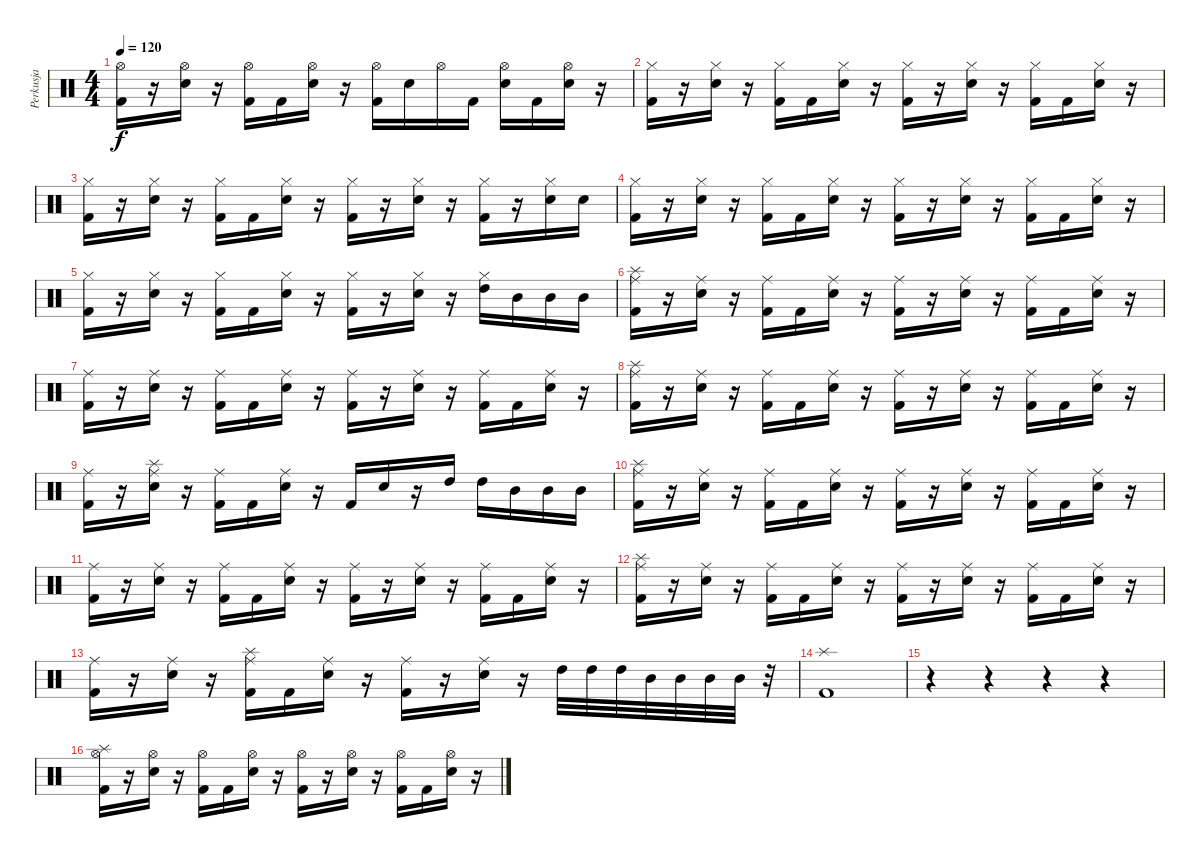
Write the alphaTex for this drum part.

\track ("Perkusja" "Perkusja") {instrument percussion}
\staff {score}
\articulation defaults
\ts (4 4)
\tempo 120
\clef neutral
\ks c
("Hi-Hat (open)" "Kick (hit) 2").16{dy f} r.16 ("Hi-Hat (open)" "Electric Snare (hit)").16 r.16 ("Hi-Hat (open)" "Kick (hit) 2").16 "Kick (hit) 2".16 ("Hi-Hat (open)" "Electric Snare (hit)").16 r.16 ("Hi-Hat (open)" "Kick (hit) 2").16 "Electric Snare (hit)".16 "Hi-Hat (open)".16 "Kick (hit) 2".16 ("Hi-Hat (open)" "Electric Snare (hit)").16 "Kick (hit) 2".16 ("Hi-Hat (open)" "Electric Snare (hit)").16 r.16 |
("Hi-Hat (closed)" "Kick (hit) 2").16 r.16 ("Hi-Hat (closed)" "Electric Snare (hit)").16 r.16 ("Hi-Hat (closed)" "Kick (hit) 2").16 "Kick (hit) 2".16 ("Hi-Hat (closed)" "Electric Snare (hit)").16 r.16 ("Hi-Hat (closed)" "Kick (hit) 2").16 r.16 ("Hi-Hat (closed)" "Electric Snare (hit)").16 r.16 ("Hi-Hat (closed)" "Kick (hit) 2").16 "Kick (hit) 2".16 ("Hi-Hat (closed)" "Electric Snare (hit)").16 r.16 |
("Hi-Hat (closed)" "Kick (hit) 2").16 r.16 ("Hi-Hat (closed)" "Electric Snare (hit)").16 r.16 ("Hi-Hat (closed)" "Kick (hit) 2").16 "Kick (hit) 2".16 ("Hi-Hat (closed)" "Electric Snare (hit)").16 r.16 ("Hi-Hat (closed)" "Kick (hit) 2").16 r.16 ("Hi-Hat (closed)" "Electric Snare (hit)").16 r.16 ("Hi-Hat (closed)" "Kick (hit) 2").16 r.16 ("Hi-Hat (closed)" "Electric Snare (hit)").16 "Electric Snare (hit)".16 |
("Hi-Hat (closed)" "Kick (hit) 2").16 r.16 ("Hi-Hat (closed)" "Electric Snare (hit)").16 r.16 ("Hi-Hat (closed)" "Kick (hit) 2").16 "Kick (hit) 2".16 ("Hi-Hat (closed)" "Electric Snare (hit)").16 r.16 ("Hi-Hat (closed)" "Kick (hit) 2").16 r.16 ("Hi-Hat (closed)" "Electric Snare (hit)").16 r.16 ("Hi-Hat (closed)" "Kick (hit) 2").16 "Kick (hit) 2".16 ("Hi-Hat (closed)" "Electric Snare (hit)").16 r.16 |
("Hi-Hat (closed)" "Kick (hit) 2").16 r.16 ("Hi-Hat (closed)" "Electric Snare (hit)").16 r.16 ("Hi-Hat (closed)" "Kick (hit) 2").16 "Kick (hit) 2".16 ("Hi-Hat (closed)" "Electric Snare (hit)").16 r.16 ("Hi-Hat (closed)" "Kick (hit) 2").16 r.16 ("Hi-Hat (closed)" "Electric Snare (hit)").16 r.16 ("Hi-Hat (closed)" "High Tom (hit)").16 "Mid Tom (hit)".16 "Mid Tom (hit)".16 "Mid Tom (hit)".16 |
("Splash (hit)" "Ride (middle)" "Kick (hit) 2").16 r.16 ("Ride (middle)" "Electric Snare (hit)").16 r.16 ("Ride (middle)" "Kick (hit) 2").16 "Kick (hit) 2".16 ("Ride (middle)" "Electric Snare (hit)").16 r.16 ("Ride (middle)" "Kick (hit) 2").16 r.16 ("Ride (middle)" "Electric Snare (hit)").16 r.16 ("Ride (middle)" "Kick (hit) 2").16 "Kick (hit) 2".16 ("Ride (middle)" "Electric Snare (hit)").16 r.16 |
("Ride (middle)" "Kick (hit) 2").16 r.16 ("Ride (middle)" "Electric Snare (hit)").16 r.16 ("Ride (middle)" "Kick (hit) 2").16 "Kick (hit) 2".16 ("Ride (middle)" "Electric Snare (hit)").16 r.16 ("Ride (middle)" "Kick (hit) 2").16 r.16 ("Ride (middle)" "Electric Snare (hit)").16 r.16 ("Ride (middle)" "Kick (hit) 2").16 "Kick (hit) 2".16 ("Ride (middle)" "Electric Snare (hit)").16 r.16 |
("Splash (hit)" "Ride (middle)" "Kick (hit) 2").16 r.16 ("Ride (middle)" "Electric Snare (hit)").16 r.16 ("Ride (middle)" "Kick (hit) 2").16 "Kick (hit) 2".16 ("Ride (middle)" "Electric Snare (hit)").16 r.16 ("Ride (middle)" "Kick (hit) 2").16 r.16 ("Ride (middle)" "Electric Snare (hit)").16 r.16 ("Ride (middle)" "Kick (hit) 2").16 "Kick (hit) 2".16 ("Ride (middle)" "Electric Snare (hit)").16 r.16 |
("Ride (middle)" "Kick (hit) 2").16 r.16 ("Splash (hit)" "Ride (middle)" "Electric Snare (hit)").16 r.16 ("Ride (middle)" "Kick (hit) 2").16 "Kick (hit) 2".16 ("Ride (middle)" "Electric Snare (hit)").16 r.16 "Kick (hit) 2".16 "Electric Snare (hit)".16 r.16 "High Tom (hit)".16 "High Tom (hit)".16 "Mid Tom (hit)".16 "Mid Tom (hit)".16 "Mid Tom (hit)".16 |
("Splash (hit)" "Ride (middle)" "Kick (hit) 2").16 r.16 ("Ride (middle)" "Electric Snare (hit)").16 r.16 ("Ride (middle)" "Kick (hit) 2").16 "Kick (hit) 2".16 ("Ride (middle)" "Electric Snare (hit)").16 r.16 ("Ride (middle)" "Kick (hit) 2").16 r.16 ("Ride (middle)" "Electric Snare (hit)").16 r.16 ("Ride (middle)" "Kick (hit) 2").16 "Kick (hit) 2".16 ("Ride (middle)" "Electric Snare (hit)").16 r.16 |
("Ride (middle)" "Kick (hit) 2").16 r.16 ("Ride (middle)" "Electric Snare (hit)").16 r.16 ("Ride (middle)" "Kick (hit) 2").16 "Kick (hit) 2".16 ("Ride (middle)" "Electric Snare (hit)").16 r.16 ("Ride (middle)" "Kick (hit) 2").16 r.16 ("Ride (middle)" "Electric Snare (hit)").16 r.16 ("Ride (middle)" "Kick (hit) 2").16 "Kick (hit) 2".16 ("Ride (middle)" "Electric Snare (hit)").16 r.16 |
("Splash (hit)" "Ride (middle)" "Kick (hit) 2").16 r.16 ("Ride (middle)" "Electric Snare (hit)").16 r.16 ("Ride (middle)" "Kick (hit) 2").16 "Kick (hit) 2".16 ("Ride (middle)" "Electric Snare (hit)").16 r.16 ("Ride (middle)" "Kick (hit) 2").16 r.16 ("Ride (middle)" "Electric Snare (hit)").16 r.16 ("Ride (middle)" "Kick (hit) 2").16 "Kick (hit) 2".16 ("Ride (middle)" "Electric Snare (hit)").16 r.16 |
("Ride (middle)" "Kick (hit) 2").16 r.16 ("Ride (middle)" "Electric Snare (hit)").16 r.16 ("Splash (hit)" "Ride (middle)" "Kick (hit) 2").16 "Kick (hit) 2".16 ("Ride (middle)" "Electric Snare (hit)").16 r.16 ("Ride (middle)" "Kick (hit) 2").16 r.16 ("Ride (middle)" "Electric Snare (hit)").16 r.16 "High Tom (hit)".32 "High Tom (hit)".32 "High Tom (hit)".32 "Mid Tom (hit)".32 "Mid Tom (hit)".32 "Mid Tom (hit)".32 "Mid Tom (hit)".32 r.32 |
("Splash (hit)" "Kick (hit) 2").1 |
r.4 r.4 r.4 r.4 |
("Splash (hit)" "Hi-Hat (open)" "Kick (hit) 2").16 r.16 ("Hi-Hat (open)" "Electric Snare (hit)").16 r.16 ("Hi-Hat (open)" "Kick (hit) 2").16 "Kick (hit) 2".16 ("Hi-Hat (open)" "Electric Snare (hit)").16 r.16 ("Hi-Hat (open)" "Kick (hit) 2").16 r.16 ("Hi-Hat (open)" "Electric Snare (hit)").16 r.16 ("Hi-Hat (open)" "Kick (hit) 2").16 "Kick (hit) 2".16 ("Hi-Hat (open)" "Electric Snare (hit)").16 r.16
